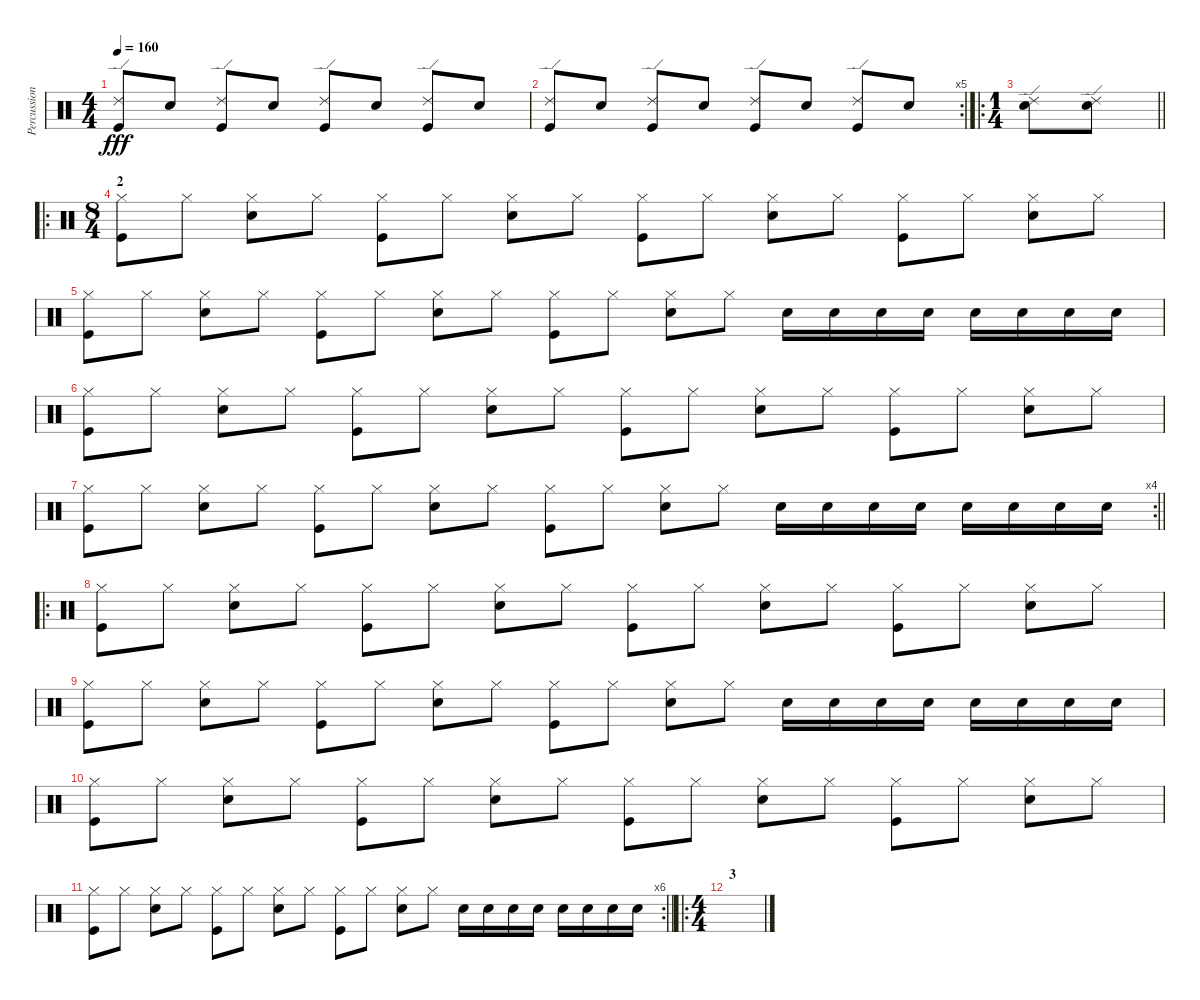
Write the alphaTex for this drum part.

\track ("Percussion" "Percussion") {instrument percussion}
\staff {score}
\articulation defaults
\ts (4 4)
\tempo 160
\clef neutral
\ks c
("Ride (edge) 2" "Kick (hit)").8{dy fff} "Snare (hit) 2".8 ("Ride (edge) 2" "Kick (hit)").8 "Snare (hit) 2".8 ("Ride (edge) 2" "Kick (hit)").8 "Snare (hit) 2".8 ("Ride (edge) 2" "Kick (hit)").8 "Snare (hit) 2".8 |
\rc 5
("Ride (edge) 2" "Kick (hit)").8 "Snare (hit) 2".8 ("Ride (edge) 2" "Kick (hit)").8 "Snare (hit) 2".8 ("Ride (edge) 2" "Kick (hit)").8 "Snare (hit) 2".8 ("Ride (edge) 2" "Kick (hit)").8 "Snare (hit) 2".8 |
\ro
\ts (1 4)
\barLineRight lightlight
("Ride (edge) 2" "Snare (hit) 2").8 ("Ride (edge) 2" "Snare (hit) 2").8 |
\ro
\ts (8 4)
\section ("" "2")
("Hi-Hat (closed)" "Kick (hit)").8 "Hi-Hat (closed)".8 ("Hi-Hat (closed)" "Snare (hit) 2").8 "Hi-Hat (closed)".8 ("Hi-Hat (closed)" "Kick (hit)").8 "Hi-Hat (closed)".8 ("Hi-Hat (closed)" "Snare (hit) 2").8 "Hi-Hat (closed)".8 ("Hi-Hat (closed)" "Kick (hit)").8 "Hi-Hat (closed)".8 ("Hi-Hat (closed)" "Snare (hit) 2").8 "Hi-Hat (closed)".8 ("Hi-Hat (closed)" "Kick (hit)").8 "Hi-Hat (closed)".8 ("Hi-Hat (closed)" "Snare (hit) 2").8 "Hi-Hat (closed)".8 |
("Hi-Hat (closed)" "Kick (hit)").8 "Hi-Hat (closed)".8 ("Hi-Hat (closed)" "Snare (hit) 2").8 "Hi-Hat (closed)".8 ("Hi-Hat (closed)" "Kick (hit)").8 "Hi-Hat (closed)".8 ("Hi-Hat (closed)" "Snare (hit) 2").8 "Hi-Hat (closed)".8 ("Hi-Hat (closed)" "Kick (hit)").8 "Hi-Hat (closed)".8 ("Hi-Hat (closed)" "Snare (hit) 2").8 "Hi-Hat (closed)".8 "Snare (hit) 2".16 "Snare (hit) 2".16 "Snare (hit) 2".16 "Snare (hit) 2".16 "Snare (hit) 2".16 "Snare (hit) 2".16 "Snare (hit) 2".16 "Snare (hit) 2".16 |
("Hi-Hat (closed)" "Kick (hit)").8 "Hi-Hat (closed)".8 ("Hi-Hat (closed)" "Snare (hit) 2").8 "Hi-Hat (closed)".8 ("Hi-Hat (closed)" "Kick (hit)").8 "Hi-Hat (closed)".8 ("Hi-Hat (closed)" "Snare (hit) 2").8 "Hi-Hat (closed)".8 ("Hi-Hat (closed)" "Kick (hit)").8 "Hi-Hat (closed)".8 ("Hi-Hat (closed)" "Snare (hit) 2").8 "Hi-Hat (closed)".8 ("Hi-Hat (closed)" "Kick (hit)").8 "Hi-Hat (closed)".8 ("Hi-Hat (closed)" "Snare (hit) 2").8 "Hi-Hat (closed)".8 |
\rc 4
\barLineRight lightlight
("Hi-Hat (closed)" "Kick (hit)").8 "Hi-Hat (closed)".8 ("Hi-Hat (closed)" "Snare (hit) 2").8 "Hi-Hat (closed)".8 ("Hi-Hat (closed)" "Kick (hit)").8 "Hi-Hat (closed)".8 ("Hi-Hat (closed)" "Snare (hit) 2").8 "Hi-Hat (closed)".8 ("Hi-Hat (closed)" "Kick (hit)").8 "Hi-Hat (closed)".8 ("Hi-Hat (closed)" "Snare (hit) 2").8 "Hi-Hat (closed)".8 "Snare (hit) 2".16 "Snare (hit) 2".16 "Snare (hit) 2".16 "Snare (hit) 2".16 "Snare (hit) 2".16 "Snare (hit) 2".16 "Snare (hit) 2".16 "Snare (hit) 2".16 |
\ro
\section ("" "")
("Hi-Hat (closed)" "Kick (hit)").8 "Hi-Hat (closed)".8 ("Hi-Hat (closed)" "Snare (hit) 2").8 "Hi-Hat (closed)".8 ("Hi-Hat (closed)" "Kick (hit)").8 "Hi-Hat (closed)".8 ("Hi-Hat (closed)" "Snare (hit) 2").8 "Hi-Hat (closed)".8 ("Hi-Hat (closed)" "Kick (hit)").8 "Hi-Hat (closed)".8 ("Hi-Hat (closed)" "Snare (hit) 2").8 "Hi-Hat (closed)".8 ("Hi-Hat (closed)" "Kick (hit)").8 "Hi-Hat (closed)".8 ("Hi-Hat (closed)" "Snare (hit) 2").8 "Hi-Hat (closed)".8 |
("Hi-Hat (closed)" "Kick (hit)").8 "Hi-Hat (closed)".8 ("Hi-Hat (closed)" "Snare (hit) 2").8 "Hi-Hat (closed)".8 ("Hi-Hat (closed)" "Kick (hit)").8 "Hi-Hat (closed)".8 ("Hi-Hat (closed)" "Snare (hit) 2").8 "Hi-Hat (closed)".8 ("Hi-Hat (closed)" "Kick (hit)").8 "Hi-Hat (closed)".8 ("Hi-Hat (closed)" "Snare (hit) 2").8 "Hi-Hat (closed)".8 "Snare (hit) 2".16 "Snare (hit) 2".16 "Snare (hit) 2".16 "Snare (hit) 2".16 "Snare (hit) 2".16 "Snare (hit) 2".16 "Snare (hit) 2".16 "Snare (hit) 2".16 |
("Hi-Hat (closed)" "Kick (hit)").8 "Hi-Hat (closed)".8 ("Hi-Hat (closed)" "Snare (hit) 2").8 "Hi-Hat (closed)".8 ("Hi-Hat (closed)" "Kick (hit)").8 "Hi-Hat (closed)".8 ("Hi-Hat (closed)" "Snare (hit) 2").8 "Hi-Hat (closed)".8 ("Hi-Hat (closed)" "Kick (hit)").8 "Hi-Hat (closed)".8 ("Hi-Hat (closed)" "Snare (hit) 2").8 "Hi-Hat (closed)".8 ("Hi-Hat (closed)" "Kick (hit)").8 "Hi-Hat (closed)".8 ("Hi-Hat (closed)" "Snare (hit) 2").8 "Hi-Hat (closed)".8 |
\rc 6
\barLineRight lightlight
("Hi-Hat (closed)" "Kick (hit)").8 "Hi-Hat (closed)".8 ("Hi-Hat (closed)" "Snare (hit) 2").8 "Hi-Hat (closed)".8 ("Hi-Hat (closed)" "Kick (hit)").8 "Hi-Hat (closed)".8 ("Hi-Hat (closed)" "Snare (hit) 2").8 "Hi-Hat (closed)".8 ("Hi-Hat (closed)" "Kick (hit)").8 "Hi-Hat (closed)".8 ("Hi-Hat (closed)" "Snare (hit) 2").8 "Hi-Hat (closed)".8 "Snare (hit) 2".16 "Snare (hit) 2".16 "Snare (hit) 2".16 "Snare (hit) 2".16 "Snare (hit) 2".16 "Snare (hit) 2".16 "Snare (hit) 2".16 "Snare (hit) 2".16 |
\ro
\ts (4 4)
\section ("" "3")
